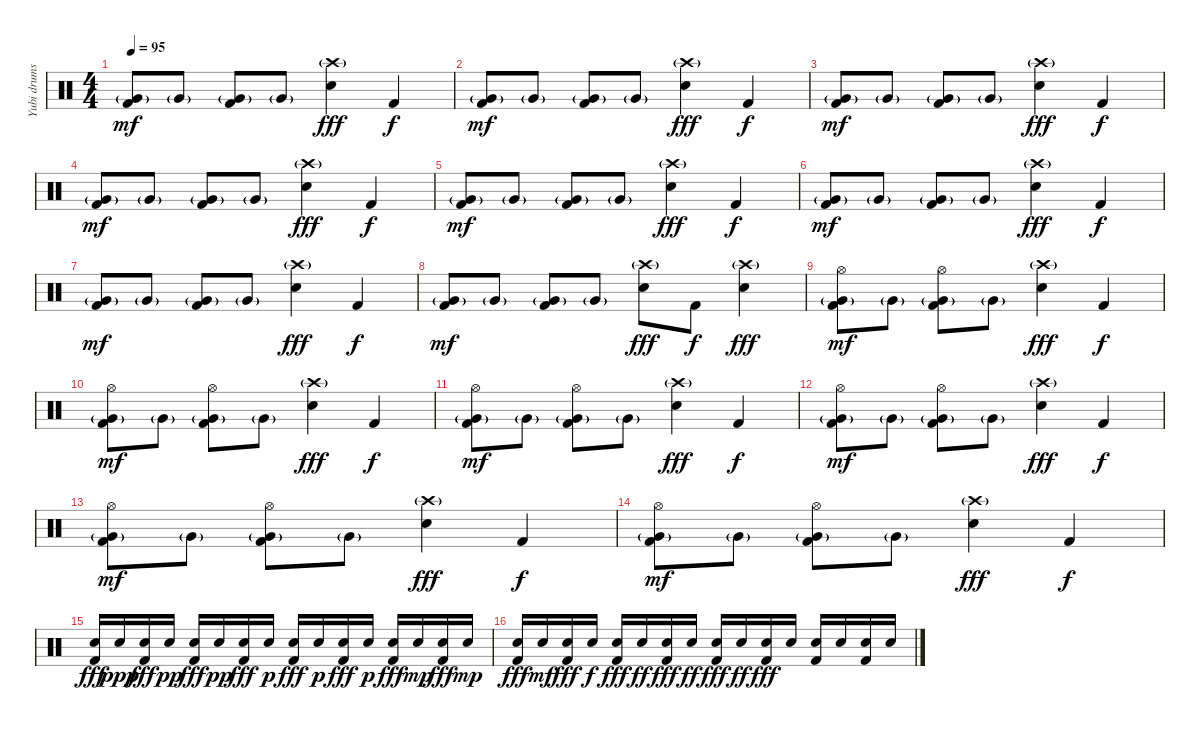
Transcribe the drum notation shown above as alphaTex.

\track ("Yubi drums" "Yubi drums") {instrument percussion}
\staff {score}
\articulation defaults
\ts (4 4)
\tempo 95
\clef neutral
\ks c
("Very Low Tom (hit)"{g} "Kick (hit) 2").8{dy mf} "Very Low Tom (hit)"{g}.8 ("Very Low Tom (hit)"{g} "Kick (hit) 2").8 "Very Low Tom (hit)"{g}.8 ("Crash high (hit)"{g} "Electric Snare (hit)").4{dy fff} "Kick (hit) 2".4{dy f} |
("Very Low Tom (hit)"{g} "Kick (hit) 2").8{dy mf} "Very Low Tom (hit)"{g}.8 ("Very Low Tom (hit)"{g} "Kick (hit) 2").8 "Very Low Tom (hit)"{g}.8 ("Crash high (hit)"{g} "Electric Snare (hit)").4{dy fff} "Kick (hit) 2".4{dy f} |
("Very Low Tom (hit)"{g} "Kick (hit) 2").8{dy mf} "Very Low Tom (hit)"{g}.8 ("Very Low Tom (hit)"{g} "Kick (hit) 2").8 "Very Low Tom (hit)"{g}.8 ("Crash high (hit)"{g} "Electric Snare (hit)").4{dy fff} "Kick (hit) 2".4{dy f} |
("Very Low Tom (hit)"{g} "Kick (hit) 2").8{dy mf} "Very Low Tom (hit)"{g}.8 ("Very Low Tom (hit)"{g} "Kick (hit) 2").8 "Very Low Tom (hit)"{g}.8 ("Crash high (hit)"{g} "Electric Snare (hit)").4{dy fff} "Kick (hit) 2".4{dy f} |
("Very Low Tom (hit)"{g} "Kick (hit) 2").8{dy mf} "Very Low Tom (hit)"{g}.8 ("Very Low Tom (hit)"{g} "Kick (hit) 2").8 "Very Low Tom (hit)"{g}.8 ("Crash high (hit)"{g} "Electric Snare (hit)").4{dy fff} "Kick (hit) 2".4{dy f} |
("Very Low Tom (hit)"{g} "Kick (hit) 2").8{dy mf} "Very Low Tom (hit)"{g}.8 ("Very Low Tom (hit)"{g} "Kick (hit) 2").8 "Very Low Tom (hit)"{g}.8 ("Crash high (hit)"{g} "Electric Snare (hit)").4{dy fff} "Kick (hit) 2".4{dy f} |
("Very Low Tom (hit)"{g} "Kick (hit) 2").8{dy mf} "Very Low Tom (hit)"{g}.8 ("Very Low Tom (hit)"{g} "Kick (hit) 2").8 "Very Low Tom (hit)"{g}.8 ("Crash high (hit)"{g} "Electric Snare (hit)").4{dy fff} "Kick (hit) 2".4{dy f} |
("Very Low Tom (hit)"{g} "Kick (hit) 2").8{dy mf} "Very Low Tom (hit)"{g}.8 ("Very Low Tom (hit)"{g} "Kick (hit) 2").8 "Very Low Tom (hit)"{g}.8 ("Crash high (hit)"{g} "Electric Snare (hit)").8{dy fff} "Kick (hit) 2".8{dy f} ("Crash high (hit)"{g} "Electric Snare (hit)").4{dy fff} |
("Hi-Hat (open)" "Very Low Tom (hit)"{g} "Kick (hit) 2").8{dy mf} "Very Low Tom (hit)"{g}.8 ("Hi-Hat (open)" "Very Low Tom (hit)"{g} "Kick (hit) 2").8 "Very Low Tom (hit)"{g}.8 ("Crash high (hit)"{g} "Electric Snare (hit)").4{dy fff} "Kick (hit) 2".4{dy f} |
("Hi-Hat (open)" "Very Low Tom (hit)"{g} "Kick (hit) 2").8{dy mf} "Very Low Tom (hit)"{g}.8 ("Hi-Hat (open)" "Very Low Tom (hit)"{g} "Kick (hit) 2").8 "Very Low Tom (hit)"{g}.8 ("Crash high (hit)"{g} "Electric Snare (hit)").4{dy fff} "Kick (hit) 2".4{dy f} |
("Hi-Hat (open)" "Very Low Tom (hit)"{g} "Kick (hit) 2").8{dy mf} "Very Low Tom (hit)"{g}.8 ("Hi-Hat (open)" "Very Low Tom (hit)"{g} "Kick (hit) 2").8 "Very Low Tom (hit)"{g}.8 ("Crash high (hit)"{g} "Electric Snare (hit)").4{dy fff} "Kick (hit) 2".4{dy f} |
("Hi-Hat (open)" "Very Low Tom (hit)"{g} "Kick (hit) 2").8{dy mf} "Very Low Tom (hit)"{g}.8 ("Hi-Hat (open)" "Very Low Tom (hit)"{g} "Kick (hit) 2").8 "Very Low Tom (hit)"{g}.8 ("Crash high (hit)"{g} "Electric Snare (hit)").4{dy fff} "Kick (hit) 2".4{dy f} |
("Hi-Hat (open)" "Very Low Tom (hit)"{g} "Kick (hit) 2").8{dy mf} "Very Low Tom (hit)"{g}.8 ("Hi-Hat (open)" "Very Low Tom (hit)"{g} "Kick (hit) 2").8 "Very Low Tom (hit)"{g}.8 ("Crash high (hit)"{g} "Electric Snare (hit)").4{dy fff} "Kick (hit) 2".4{dy f} |
("Hi-Hat (open)" "Very Low Tom (hit)"{g} "Kick (hit) 2").8{dy mf} "Very Low Tom (hit)"{g}.8 ("Hi-Hat (open)" "Very Low Tom (hit)"{g} "Kick (hit) 2").8 "Very Low Tom (hit)"{g}.8 ("Crash high (hit)"{g} "Electric Snare (hit)").4{dy fff} "Kick (hit) 2".4{dy f} |
("Electric Snare (hit)" "Kick (hit) 2").16{dy fff} "Electric Snare (hit)".16{dy ppp} ("Electric Snare (hit)" "Kick (hit) 2").16{dy fff} "Electric Snare (hit)".16{dy pp} ("Electric Snare (hit)" "Kick (hit) 2").16{dy fff} "Electric Snare (hit)".16{dy pp} ("Electric Snare (hit)" "Kick (hit) 2").16{dy fff} "Electric Snare (hit)".16{dy p} ("Electric Snare (hit)" "Kick (hit) 2").16{dy fff} "Electric Snare (hit)".16{dy p} ("Electric Snare (hit)" "Kick (hit) 2").16{dy fff} "Electric Snare (hit)".16{dy p} ("Electric Snare (hit)" "Kick (hit) 2").16{dy fff} "Electric Snare (hit)".16{dy mp} ("Electric Snare (hit)" "Kick (hit) 2").16{dy fff} "Electric Snare (hit)".16{dy mp} |
("Electric Snare (hit)" "Kick (hit) 2").16{dy fff} "Electric Snare (hit)".16{dy mf} ("Electric Snare (hit)" "Kick (hit) 2").16{dy fff} "Electric Snare (hit)".16{dy f} ("Electric Snare (hit)" "Kick (hit) 2").16{dy fff} "Electric Snare (hit)".16{dy ff} ("Electric Snare (hit)" "Kick (hit) 2").16{dy fff} "Electric Snare (hit)".16{dy ff} ("Electric Snare (hit)" "Kick (hit) 2").16{dy fff} "Electric Snare (hit)".16{dy ff} ("Electric Snare (hit)" "Kick (hit) 2").16{dy fff} "Electric Snare (hit)".16 ("Electric Snare (hit)" "Kick (hit) 2").16 "Electric Snare (hit)".16 ("Electric Snare (hit)" "Kick (hit) 2").16 "Electric Snare (hit)".16
